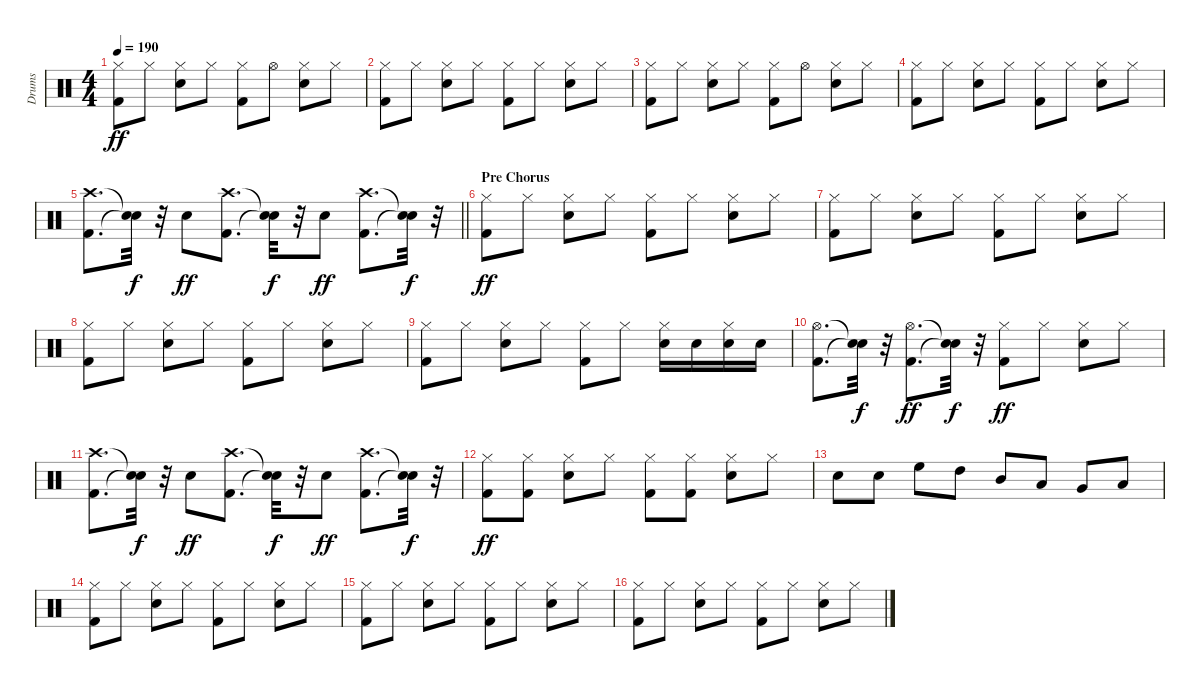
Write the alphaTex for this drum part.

\track ("Drums" "Drums") {instrument percussion}
\staff {score}
\articulation defaults
\ts (4 4)
\tempo 190
\clef neutral
\ks c
("Kick (hit) 2" "Hi-Hat (closed)").8{dy ff} "Hi-Hat (closed)".8 ("Snare (hit) 2" "Hi-Hat (closed)").8 "Hi-Hat (closed)".8 ("Kick (hit) 2" "Hi-Hat (closed)").8 "Hi-Hat (open)".8 ("Snare (hit) 2" "Hi-Hat (closed)").8 "Hi-Hat (closed)".8 |
("Kick (hit) 2" "Hi-Hat (closed)").8 "Hi-Hat (closed)".8 ("Snare (hit) 2" "Hi-Hat (closed)").8 "Hi-Hat (closed)".8 ("Kick (hit) 2" "Hi-Hat (closed)").8 "Hi-Hat (closed)".8 ("Snare (hit) 2" "Hi-Hat (closed)").8 "Hi-Hat (closed)".8 |
("Kick (hit) 2" "Hi-Hat (closed)").8 "Hi-Hat (closed)".8 ("Snare (hit) 2" "Hi-Hat (closed)").8 "Hi-Hat (closed)".8 ("Kick (hit) 2" "Hi-Hat (closed)").8 "Hi-Hat (open)".8 ("Snare (hit) 2" "Hi-Hat (closed)").8 "Hi-Hat (closed)".8 |
("Kick (hit) 2" "Hi-Hat (closed)").8 "Hi-Hat (closed)".8 ("Snare (hit) 2" "Hi-Hat (closed)").8 "Hi-Hat (closed)".8 ("Kick (hit) 2" "Hi-Hat (closed)").8 "Hi-Hat (closed)".8 ("Snare (hit) 2" "Hi-Hat (closed)").8 "Hi-Hat (closed)".8 |
\barLineRight lightlight
("Kick (hit) 2" "Crash high (hit)").8{d} ("Snare (hit)"{t} "Snare (hit)"{t}).32{dy f} r.32 "Snare (hit) 2".8{dy ff} ("Kick (hit) 2" "Crash high (hit)").8{d} ("Snare (hit)"{t} "Snare (hit)"{t}).32{dy f} r.32 "Snare (hit) 2".8{dy ff} ("Kick (hit) 2" "Crash high (hit)").8{d} ("Snare (hit)"{t} "Snare (hit)"{t}).32{dy f} r.32 |
\section ("" "Pre Chorus")
("Kick (hit) 2" "Hi-Hat (closed)").8{dy ff} "Hi-Hat (closed)".8 ("Snare (hit) 2" "Hi-Hat (closed)").8 "Hi-Hat (closed)".8 ("Kick (hit) 2" "Hi-Hat (closed)").8 "Hi-Hat (closed)".8 ("Snare (hit) 2" "Hi-Hat (closed)").8 "Hi-Hat (closed)".8 |
("Kick (hit) 2" "Hi-Hat (closed)").8 "Hi-Hat (closed)".8 ("Snare (hit) 2" "Hi-Hat (closed)").8 "Hi-Hat (closed)".8 ("Kick (hit) 2" "Hi-Hat (closed)").8 "Hi-Hat (closed)".8 ("Snare (hit) 2" "Hi-Hat (closed)").8 "Hi-Hat (closed)".8 |
("Kick (hit) 2" "Hi-Hat (closed)").8 "Hi-Hat (closed)".8 ("Snare (hit) 2" "Hi-Hat (closed)").8 "Hi-Hat (closed)".8 ("Kick (hit) 2" "Hi-Hat (closed)").8 "Hi-Hat (closed)".8 ("Snare (hit) 2" "Hi-Hat (closed)").8 "Hi-Hat (closed)".8 |
("Kick (hit) 2" "Hi-Hat (closed)").8 "Hi-Hat (closed)".8 ("Snare (hit) 2" "Hi-Hat (closed)").8 "Hi-Hat (closed)".8 ("Kick (hit) 2" "Hi-Hat (closed)").8 "Hi-Hat (closed)".8 ("Snare (hit) 2" "Hi-Hat (closed)").16 "Snare (hit) 2".16 ("Snare (hit) 2" "Hi-Hat (closed)").16 "Snare (hit) 2".16 |
("Kick (hit) 2" "Hi-Hat (open)").8{d} ("Snare (hit)"{t} "Snare (hit)"{t}).32{dy f} r.32 ("Kick (hit) 2" "Hi-Hat (open)").8{d dy ff} ("Snare (hit)"{t} "Snare (hit)"{t}).32{dy f} r.32 ("Kick (hit) 2" "Hi-Hat (closed)").8{dy ff} "Hi-Hat (closed)".8 ("Snare (hit) 2" "Hi-Hat (closed)").8 "Hi-Hat (closed)".8 |
("Kick (hit) 2" "Crash high (hit)").8{d} ("Snare (hit)"{t} "Snare (hit)"{t}).32{dy f} r.32 "Snare (hit) 2".8{dy ff} ("Kick (hit) 2" "Crash high (hit)").8{d} ("Snare (hit)"{t} "Snare (hit)"{t}).32{dy f} r.32 "Snare (hit) 2".8{dy ff} ("Kick (hit) 2" "Crash high (hit)").8{d} ("Snare (hit)"{t} "Snare (hit)"{t}).32{dy f} r.32 |
("Kick (hit) 2" "Hi-Hat (closed)").8{dy ff} ("Kick (hit) 2" "Hi-Hat (closed)").8 ("Snare (hit) 2" "Hi-Hat (closed)").8 "Hi-Hat (closed)".8 ("Kick (hit) 2" "Hi-Hat (closed)").8 ("Kick (hit) 2" "Hi-Hat (closed)").8 ("Snare (hit) 2" "Hi-Hat (closed)").8 "Hi-Hat (closed)".8 |
"Snare (hit) 2".8 "Snare (hit) 2".8 "High Floor Tom (hit)".8 "High Tom (hit)".8 "Mid Tom (hit)".8 "Low Tom (hit)".8 "Very Low Tom (hit)".8 "Low Floor Tom (hit)".8 |
("Kick (hit) 2" "Hi-Hat (closed)").8 "Hi-Hat (closed)".8 ("Snare (hit) 2" "Hi-Hat (closed)").8 "Hi-Hat (closed)".8 ("Kick (hit) 2" "Hi-Hat (closed)").8 "Hi-Hat (closed)".8 ("Snare (hit) 2" "Hi-Hat (closed)").8 "Hi-Hat (closed)".8 |
("Kick (hit) 2" "Hi-Hat (closed)").8 "Hi-Hat (closed)".8 ("Snare (hit) 2" "Hi-Hat (closed)").8 "Hi-Hat (closed)".8 ("Kick (hit) 2" "Hi-Hat (closed)").8 "Hi-Hat (closed)".8 ("Snare (hit) 2" "Hi-Hat (closed)").8 "Hi-Hat (closed)".8 |
("Kick (hit) 2" "Hi-Hat (closed)").8 "Hi-Hat (closed)".8 ("Snare (hit) 2" "Hi-Hat (closed)").8 "Hi-Hat (closed)".8 ("Kick (hit) 2" "Hi-Hat (closed)").8 "Hi-Hat (closed)".8 ("Snare (hit) 2" "Hi-Hat (closed)").8 "Hi-Hat (closed)".8
